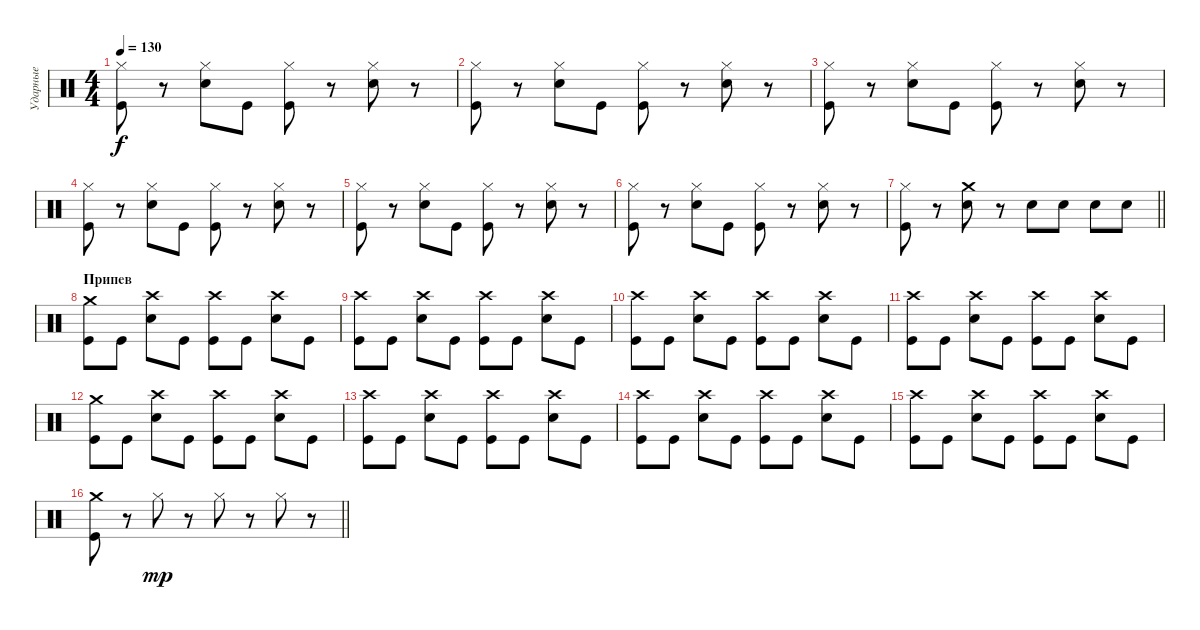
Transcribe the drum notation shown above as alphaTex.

\track ("Ударные" "Ударные") {instrument percussion}
\staff {score}
\articulation defaults
\ts (4 4)
\tempo 130
\clef neutral
\ks c
("Hi-Hat (closed)" "Kick (hit)").8{dy f} r.8 ("Hi-Hat (closed)" "Electric Snare (hit)").8 "Kick (hit)".8 ("Hi-Hat (closed)" "Kick (hit)").8 r.8 ("Hi-Hat (closed)" "Electric Snare (hit)").8 r.8 |
("Hi-Hat (closed)" "Kick (hit)").8 r.8 ("Hi-Hat (closed)" "Electric Snare (hit)").8 "Kick (hit)".8 ("Hi-Hat (closed)" "Kick (hit)").8 r.8 ("Hi-Hat (closed)" "Electric Snare (hit)").8 r.8 |
("Hi-Hat (closed)" "Kick (hit)").8 r.8 ("Hi-Hat (closed)" "Electric Snare (hit)").8 "Kick (hit)".8 ("Hi-Hat (closed)" "Kick (hit)").8 r.8 ("Hi-Hat (closed)" "Electric Snare (hit)").8 r.8 |
("Hi-Hat (closed)" "Kick (hit)").8 r.8 ("Hi-Hat (closed)" "Electric Snare (hit)").8 "Kick (hit)".8 ("Hi-Hat (closed)" "Kick (hit)").8 r.8 ("Hi-Hat (closed)" "Electric Snare (hit)").8 r.8 |
("Hi-Hat (closed)" "Kick (hit)").8 r.8 ("Hi-Hat (closed)" "Electric Snare (hit)").8 "Kick (hit)".8 ("Hi-Hat (closed)" "Kick (hit)").8 r.8 ("Hi-Hat (closed)" "Electric Snare (hit)").8 r.8 |
("Hi-Hat (closed)" "Kick (hit)").8 r.8 ("Hi-Hat (closed)" "Electric Snare (hit)").8 "Kick (hit)".8 ("Hi-Hat (closed)" "Kick (hit)").8 r.8 ("Hi-Hat (closed)" "Electric Snare (hit)").8 r.8 |
\barLineRight lightlight
("Hi-Hat (closed)" "Kick (hit)").8 r.8 ("Crash medium (hit)" "Electric Snare (hit)").8 r.8 "Electric Snare (hit)".8 "Electric Snare (hit)".8 "Electric Snare (hit)".8 "Electric Snare (hit)".8 |
\section ("" "Припев")
("Kick (hit)" "Crash medium (hit)").8 "Kick (hit)".8 ("Electric Snare (hit)" "Crash high (hit)").8 "Kick (hit)".8 ("Kick (hit)" "Crash high (hit)").8 "Kick (hit)".8 ("Electric Snare (hit)" "Crash high (hit)").8 "Kick (hit)".8 |
("Kick (hit)" "Crash high (hit)").8 "Kick (hit)".8 ("Electric Snare (hit)" "Crash high (hit)").8 "Kick (hit)".8 ("Kick (hit)" "Crash high (hit)").8 "Kick (hit)".8 ("Electric Snare (hit)" "Crash high (hit)").8 "Kick (hit)".8 |
("Kick (hit)" "Crash high (hit)").8 "Kick (hit)".8 ("Electric Snare (hit)" "Crash high (hit)").8 "Kick (hit)".8 ("Kick (hit)" "Crash high (hit)").8 "Kick (hit)".8 ("Electric Snare (hit)" "Crash high (hit)").8 "Kick (hit)".8 |
("Kick (hit)" "Crash high (hit)").8 "Kick (hit)".8 ("Electric Snare (hit)" "Crash high (hit)").8 "Kick (hit)".8 ("Kick (hit)" "Crash high (hit)").8 "Kick (hit)".8 ("Electric Snare (hit)" "Crash high (hit)").8 "Kick (hit)".8 |
("Kick (hit)" "Crash medium (hit)").8 "Kick (hit)".8 ("Electric Snare (hit)" "Crash high (hit)").8 "Kick (hit)".8 ("Kick (hit)" "Crash high (hit)").8 "Kick (hit)".8 ("Electric Snare (hit)" "Crash high (hit)").8 "Kick (hit)".8 |
("Kick (hit)" "Crash high (hit)").8 "Kick (hit)".8 ("Electric Snare (hit)" "Crash high (hit)").8 "Kick (hit)".8 ("Kick (hit)" "Crash high (hit)").8 "Kick (hit)".8 ("Electric Snare (hit)" "Crash high (hit)").8 "Kick (hit)".8 |
("Kick (hit)" "Crash high (hit)").8 "Kick (hit)".8 ("Electric Snare (hit)" "Crash high (hit)").8 "Kick (hit)".8 ("Kick (hit)" "Crash high (hit)").8 "Kick (hit)".8 ("Electric Snare (hit)" "Crash high (hit)").8 "Kick (hit)".8 |
("Kick (hit)" "Crash high (hit)").8 "Kick (hit)".8 ("Electric Snare (hit)" "Crash high (hit)").8 "Kick (hit)".8 ("Kick (hit)" "Crash high (hit)").8 "Kick (hit)".8 ("Electric Snare (hit)" "Crash high (hit)").8 "Kick (hit)".8 |
\barLineRight lightlight
("Crash medium (hit)" "Kick (hit)").8 r.8 "Hi-Hat (closed)".8{dy mp} r.8 "Hi-Hat (closed)".8 r.8 "Hi-Hat (closed)".8 r.8
